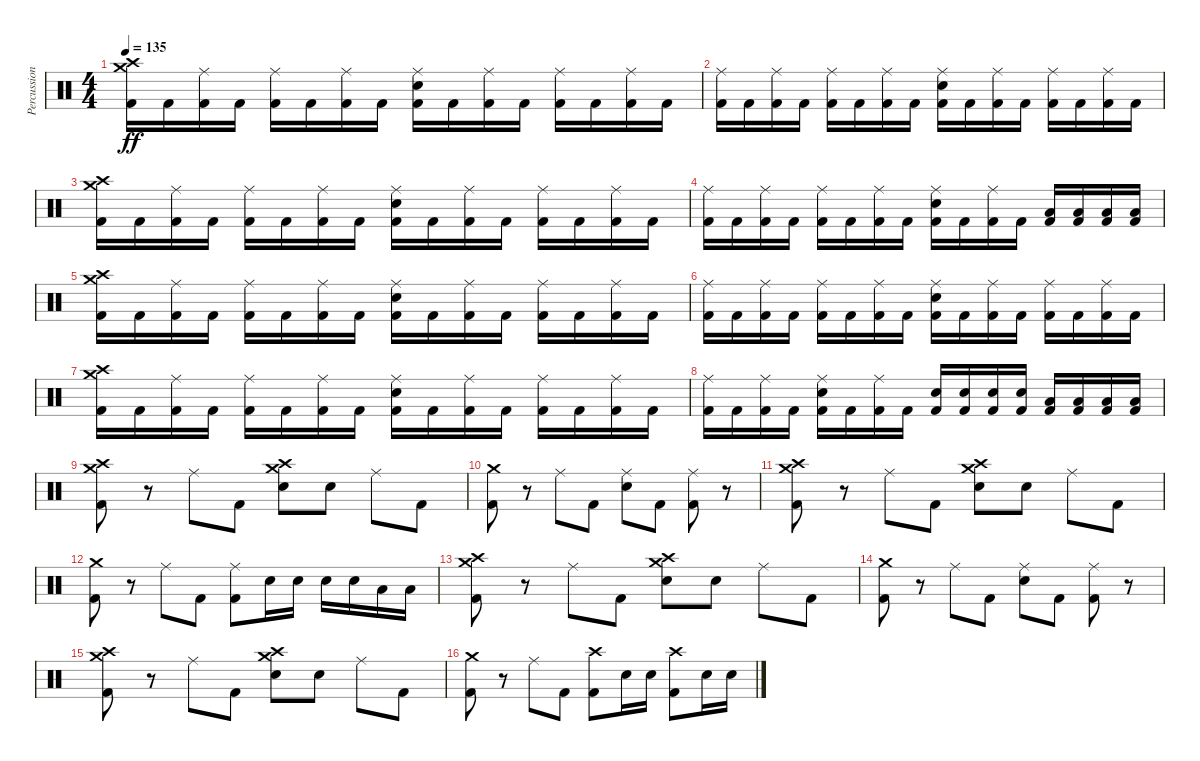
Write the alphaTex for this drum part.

\track ("Percussion" "Percussion") {instrument percussion}
\staff {score}
\articulation defaults
\ts (4 4)
\tempo 135
\clef neutral
\ks c
("Kick (hit) 2" "Crash medium (hit)" "Crash high (hit)").16{dy ff} "Kick (hit) 2".16 ("Kick (hit) 2" "Ride (middle)").16 "Kick (hit) 2".16 ("Kick (hit) 2" "Ride (middle)").16 "Kick (hit) 2".16 ("Kick (hit) 2" "Ride (middle)").16 "Kick (hit) 2".16 ("Kick (hit) 2" "Electric Snare (hit)" "Ride (middle)").16 "Kick (hit) 2".16 ("Kick (hit) 2" "Ride (middle)").16 "Kick (hit) 2".16 ("Kick (hit) 2" "Ride (middle)").16 "Kick (hit) 2".16 ("Kick (hit) 2" "Ride (middle)").16 "Kick (hit) 2".16 |
("Kick (hit) 2" "Ride (middle)").16 "Kick (hit) 2".16 ("Kick (hit) 2" "Ride (middle)").16 "Kick (hit) 2".16 ("Kick (hit) 2" "Ride (middle)").16 "Kick (hit) 2".16 ("Kick (hit) 2" "Ride (middle)").16 "Kick (hit) 2".16 ("Kick (hit) 2" "Electric Snare (hit)" "Ride (middle)").16 "Kick (hit) 2".16 ("Kick (hit) 2" "Ride (middle)").16 "Kick (hit) 2".16 ("Kick (hit) 2" "Ride (middle)").16 "Kick (hit) 2".16 ("Kick (hit) 2" "Ride (middle)").16 "Kick (hit) 2".16 |
("Kick (hit) 2" "Crash medium (hit)" "Crash high (hit)").16 "Kick (hit) 2".16 ("Kick (hit) 2" "Ride (middle)").16 "Kick (hit) 2".16 ("Kick (hit) 2" "Ride (middle)").16 "Kick (hit) 2".16 ("Kick (hit) 2" "Ride (middle)").16 "Kick (hit) 2".16 ("Kick (hit) 2" "Electric Snare (hit)" "Ride (middle)").16 "Kick (hit) 2".16 ("Kick (hit) 2" "Ride (middle)").16 "Kick (hit) 2".16 ("Kick (hit) 2" "Ride (middle)").16 "Kick (hit) 2".16 ("Kick (hit) 2" "Ride (middle)").16 "Kick (hit) 2".16 |
("Kick (hit) 2" "Ride (middle)").16 "Kick (hit) 2".16 ("Kick (hit) 2" "Ride (middle)").16 "Kick (hit) 2".16 ("Kick (hit) 2" "Ride (middle)").16 "Kick (hit) 2".16 ("Kick (hit) 2" "Ride (middle)").16 "Kick (hit) 2".16 ("Kick (hit) 2" "Electric Snare (hit)" "Ride (middle)").16 "Kick (hit) 2".16 ("Kick (hit) 2" "Ride (middle)").16 "Kick (hit) 2".16 ("Kick (hit) 2" "Low Tom (hit)").16 ("Kick (hit) 2" "Low Tom (hit)").16 ("Kick (hit) 2" "Low Tom (hit)").16 ("Kick (hit) 2" "Low Tom (hit)").16 |
("Kick (hit) 2" "Crash medium (hit)" "Crash high (hit)").16 "Kick (hit) 2".16 ("Kick (hit) 2" "Ride (middle)").16 "Kick (hit) 2".16 ("Kick (hit) 2" "Ride (middle)").16 "Kick (hit) 2".16 ("Kick (hit) 2" "Ride (middle)").16 "Kick (hit) 2".16 ("Kick (hit) 2" "Electric Snare (hit)" "Ride (middle)").16 "Kick (hit) 2".16 ("Kick (hit) 2" "Ride (middle)").16 "Kick (hit) 2".16 ("Kick (hit) 2" "Ride (middle)").16 "Kick (hit) 2".16 ("Kick (hit) 2" "Ride (middle)").16 "Kick (hit) 2".16 |
("Kick (hit) 2" "Ride (middle)").16 "Kick (hit) 2".16 ("Kick (hit) 2" "Ride (middle)").16 "Kick (hit) 2".16 ("Kick (hit) 2" "Ride (middle)").16 "Kick (hit) 2".16 ("Kick (hit) 2" "Ride (middle)").16 "Kick (hit) 2".16 ("Kick (hit) 2" "Electric Snare (hit)" "Ride (middle)").16 "Kick (hit) 2".16 ("Kick (hit) 2" "Ride (middle)").16 "Kick (hit) 2".16 ("Kick (hit) 2" "Ride (middle)").16 "Kick (hit) 2".16 ("Kick (hit) 2" "Ride (middle)").16 "Kick (hit) 2".16 |
("Kick (hit) 2" "Crash medium (hit)" "Crash high (hit)").16 "Kick (hit) 2".16 ("Kick (hit) 2" "Ride (middle)").16 "Kick (hit) 2".16 ("Kick (hit) 2" "Ride (middle)").16 "Kick (hit) 2".16 ("Kick (hit) 2" "Ride (middle)").16 "Kick (hit) 2".16 ("Kick (hit) 2" "Electric Snare (hit)" "Ride (middle)").16 "Kick (hit) 2".16 ("Kick (hit) 2" "Ride (middle)").16 "Kick (hit) 2".16 ("Kick (hit) 2" "Ride (middle)").16 "Kick (hit) 2".16 ("Kick (hit) 2" "Ride (middle)").16 "Kick (hit) 2".16 |
("Kick (hit) 2" "Ride (middle)").16 "Kick (hit) 2".16 ("Kick (hit) 2" "Ride (middle)").16 "Kick (hit) 2".16 ("Kick (hit) 2" "Electric Snare (hit)" "Ride (middle)").16 "Kick (hit) 2".16 ("Kick (hit) 2" "Ride (middle)").16 "Kick (hit) 2".16 ("Kick (hit) 2" "Electric Snare (hit)").16 ("Kick (hit) 2" "Electric Snare (hit)").16 ("Kick (hit) 2" "Electric Snare (hit)").16 ("Kick (hit) 2" "Electric Snare (hit)").16 ("Kick (hit) 2" "Low Tom (hit)").16 ("Kick (hit) 2" "Low Tom (hit)").16 ("Kick (hit) 2" "Low Tom (hit)").16 ("Kick (hit) 2" "Low Tom (hit)").16 |
("Kick (hit) 2" "Crash medium (hit)" "Crash high (hit)").8 r.8 "Ride (middle)".8 "Kick (hit) 2".8 ("Electric Snare (hit)" "Crash medium (hit)" "Crash high (hit)").8 "Electric Snare (hit)".8 "Ride (middle)".8 "Kick (hit) 2".8 |
("Kick (hit) 2" "Crash medium (hit)").8 r.8 "Ride (middle)".8 "Kick (hit) 2".8 ("Electric Snare (hit)" "Ride (middle)").8 "Kick (hit) 2".8 ("Kick (hit) 2" "Ride (middle)").8 r.8 |
("Kick (hit) 2" "Crash medium (hit)" "Crash high (hit)").8 r.8 "Ride (middle)".8 "Kick (hit) 2".8 ("Electric Snare (hit)" "Crash medium (hit)" "Crash high (hit)").8 "Electric Snare (hit)".8 "Ride (middle)".8 "Kick (hit) 2".8 |
("Kick (hit) 2" "Crash medium (hit)").8 r.8 "Ride (middle)".8 "Kick (hit) 2".8 ("Kick (hit) 2" "Ride (middle)").8 "Electric Snare (hit)".16 "Electric Snare (hit)".16 "Electric Snare (hit)".16 "Electric Snare (hit)".16 "Low Tom (hit)".16 "Low Tom (hit)".16 |
("Kick (hit) 2" "Crash medium (hit)" "Crash high (hit)").8 r.8 "Ride (middle)".8 "Kick (hit) 2".8 ("Electric Snare (hit)" "Crash medium (hit)" "Crash high (hit)").8 "Electric Snare (hit)".8 "Ride (middle)".8 "Kick (hit) 2".8 |
("Kick (hit) 2" "Crash medium (hit)").8 r.8 "Ride (middle)".8 "Kick (hit) 2".8 ("Electric Snare (hit)" "Ride (middle)").8 "Kick (hit) 2".8 ("Kick (hit) 2" "Ride (middle)").8 r.8 |
("Kick (hit) 2" "Crash medium (hit)" "Crash high (hit)").8 r.8 "Ride (middle)".8 "Kick (hit) 2".8 ("Electric Snare (hit)" "Crash medium (hit)" "Crash high (hit)").8 "Electric Snare (hit)".8 "Ride (middle)".8 "Kick (hit) 2".8 |
("Kick (hit) 2" "Crash medium (hit)").8 r.8 "Ride (middle)".8 "Kick (hit) 2".8 ("Kick (hit) 2" "Crash high (hit)").8 "Electric Snare (hit)".16 "Electric Snare (hit)".16 ("Kick (hit) 2" "Crash high (hit)").8 "Electric Snare (hit)".16 "Electric Snare (hit)".16
